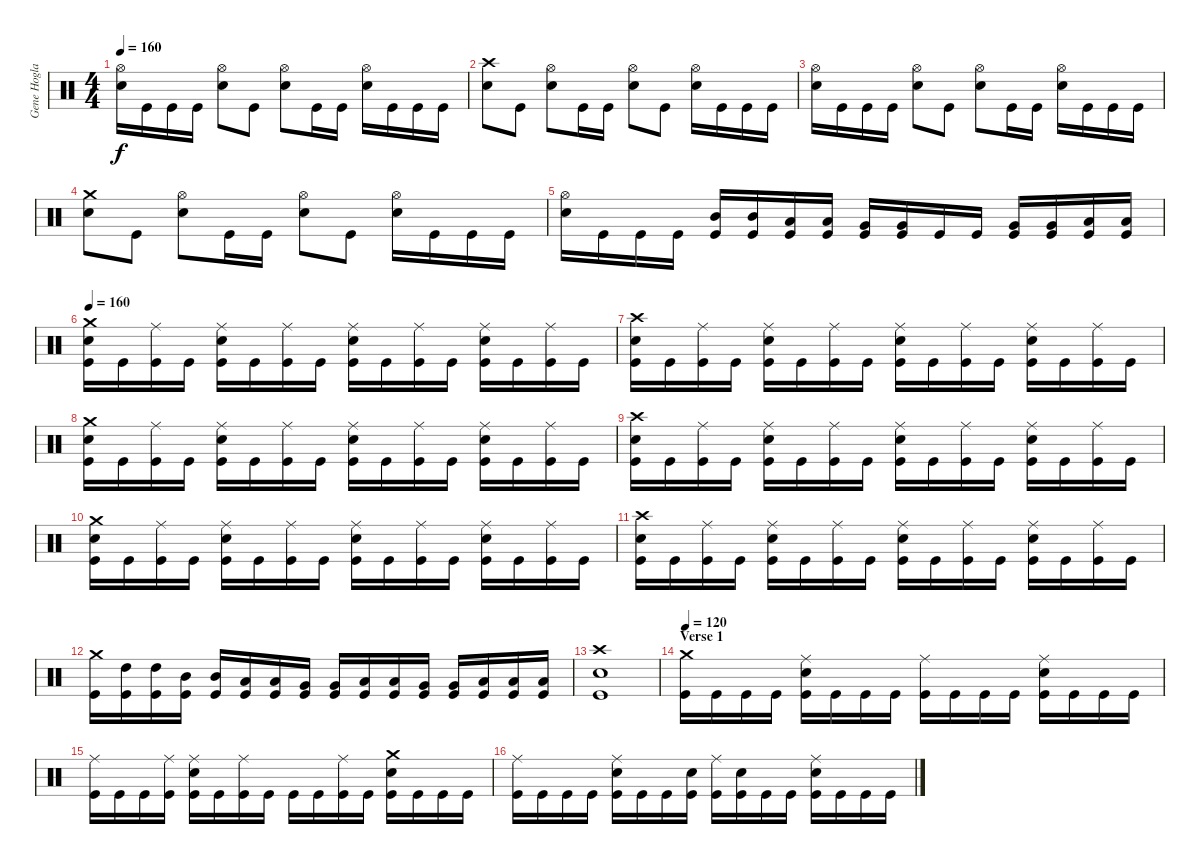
\track ("Gene Hoglan" "Gene Hogla") {instrument percussion}
\staff {score}
\articulation defaults
\ts (4 4)
\tempo 160
\clef neutral
\ks c
("Hi-Hat (open)" "Electric Snare (hit)").16{dy f} "Kick (hit)".16 "Kick (hit)".16 "Kick (hit)".16 ("Hi-Hat (open)" "Electric Snare (hit)").8 "Kick (hit)".8 ("Hi-Hat (open)" "Electric Snare (hit)").8 "Kick (hit)".16 "Kick (hit)".16 ("Hi-Hat (open)" "Electric Snare (hit)").16 "Kick (hit)".16 "Kick (hit)".16 "Kick (hit)".16 |
("Crash high (hit)" "Electric Snare (hit)").8 "Kick (hit)".8 ("Hi-Hat (open)" "Electric Snare (hit)").8 "Kick (hit)".16 "Kick (hit)".16 ("Hi-Hat (open)" "Electric Snare (hit)").8 "Kick (hit)".8 ("Hi-Hat (open)" "Electric Snare (hit)").16 "Kick (hit)".16 "Kick (hit)".16 "Kick (hit)".16 |
("Hi-Hat (open)" "Electric Snare (hit)").16 "Kick (hit)".16 "Kick (hit)".16 "Kick (hit)".16 ("Hi-Hat (open)" "Electric Snare (hit)").8 "Kick (hit)".8 ("Hi-Hat (open)" "Electric Snare (hit)").8 "Kick (hit)".16 "Kick (hit)".16 ("Hi-Hat (open)" "Electric Snare (hit)").16 "Kick (hit)".16 "Kick (hit)".16 "Kick (hit)".16 |
("Crash medium (hit)" "Electric Snare (hit)").8 "Kick (hit)".8 ("Hi-Hat (open)" "Electric Snare (hit)").8 "Kick (hit)".16 "Kick (hit)".16 ("Hi-Hat (open)" "Electric Snare (hit)").8 "Kick (hit)".8 ("Hi-Hat (open)" "Electric Snare (hit)").16 "Kick (hit)".16 "Kick (hit)".16 "Kick (hit)".16 |
("Hi-Hat (open)" "Electric Snare (hit)").16 "Kick (hit)".16 "Kick (hit)".16 "Kick (hit)".16 ("Mid Tom (hit)" "Kick (hit)").16 ("Mid Tom (hit)" "Kick (hit)").16 ("Low Tom (hit)" "Kick (hit)").16 ("Low Tom (hit)" "Kick (hit)").16 ("Very Low Tom (hit)" "Kick (hit)").16 ("Very Low Tom (hit)" "Kick (hit)").16 "Kick (hit)".16 "Kick (hit)".16 ("Very Low Tom (hit)" "Kick (hit)").16 ("Very Low Tom (hit)" "Kick (hit)").16 ("Low Floor Tom (hit)" "Kick (hit)").16 ("Low Floor Tom (hit)" "Kick (hit)").16 |
\tempo 160
("Crash medium (hit)" "Electric Snare (hit)" "Kick (hit)").16 "Kick (hit)".16 ("Ride (middle)" "Kick (hit)").16 "Kick (hit)".16 ("Ride (middle)" "Electric Snare (hit)" "Kick (hit)").16 "Kick (hit)".16 ("Ride (middle)" "Kick (hit)").16 "Kick (hit)".16 ("Ride (middle)" "Electric Snare (hit)" "Kick (hit)").16 "Kick (hit)".16 ("Ride (middle)" "Kick (hit)").16 "Kick (hit)".16 ("Ride (middle)" "Electric Snare (hit)" "Kick (hit)").16 "Kick (hit)".16 ("Ride (middle)" "Kick (hit)").16 "Kick (hit)".16 |
("Crash high (hit)" "Electric Snare (hit)" "Kick (hit)").16 "Kick (hit)".16 ("Ride (middle)" "Kick (hit)").16 "Kick (hit)".16 ("Ride (middle)" "Electric Snare (hit)" "Kick (hit)").16 "Kick (hit)".16 ("Ride (middle)" "Kick (hit)").16 "Kick (hit)".16 ("Ride (middle)" "Electric Snare (hit)" "Kick (hit)").16 "Kick (hit)".16 ("Ride (middle)" "Kick (hit)").16 "Kick (hit)".16 ("Ride (middle)" "Electric Snare (hit)" "Kick (hit)").16 "Kick (hit)".16 ("Ride (middle)" "Kick (hit)").16 "Kick (hit)".16 |
("Crash medium (hit)" "Electric Snare (hit)" "Kick (hit)").16 "Kick (hit)".16 ("Ride (middle)" "Kick (hit)").16 "Kick (hit)".16 ("Ride (middle)" "Electric Snare (hit)" "Kick (hit)").16 "Kick (hit)".16 ("Ride (middle)" "Kick (hit)").16 "Kick (hit)".16 ("Ride (middle)" "Electric Snare (hit)" "Kick (hit)").16 "Kick (hit)".16 ("Ride (middle)" "Kick (hit)").16 "Kick (hit)".16 ("Ride (middle)" "Electric Snare (hit)" "Kick (hit)").16 "Kick (hit)".16 ("Ride (middle)" "Kick (hit)").16 "Kick (hit)".16 |
("Crash high (hit)" "Electric Snare (hit)" "Kick (hit)").16 "Kick (hit)".16 ("Ride (middle)" "Kick (hit)").16 "Kick (hit)".16 ("Ride (middle)" "Electric Snare (hit)" "Kick (hit)").16 "Kick (hit)".16 ("Ride (middle)" "Kick (hit)").16 "Kick (hit)".16 ("Ride (middle)" "Electric Snare (hit)" "Kick (hit)").16 "Kick (hit)".16 ("Ride (middle)" "Kick (hit)").16 "Kick (hit)".16 ("Ride (middle)" "Electric Snare (hit)" "Kick (hit)").16 "Kick (hit)".16 ("Ride (middle)" "Kick (hit)").16 "Kick (hit)".16 |
("Crash medium (hit)" "Electric Snare (hit)" "Kick (hit)").16 "Kick (hit)".16 ("Ride (middle)" "Kick (hit)").16 "Kick (hit)".16 ("Ride (middle)" "Electric Snare (hit)" "Kick (hit)").16 "Kick (hit)".16 ("Ride (middle)" "Kick (hit)").16 "Kick (hit)".16 ("Ride (middle)" "Electric Snare (hit)" "Kick (hit)").16 "Kick (hit)".16 ("Ride (middle)" "Kick (hit)").16 "Kick (hit)".16 ("Ride (middle)" "Electric Snare (hit)" "Kick (hit)").16 "Kick (hit)".16 ("Ride (middle)" "Kick (hit)").16 "Kick (hit)".16 |
("Crash high (hit)" "Electric Snare (hit)" "Kick (hit)").16 "Kick (hit)".16 ("Ride (middle)" "Kick (hit)").16 "Kick (hit)".16 ("Ride (middle)" "Electric Snare (hit)" "Kick (hit)").16 "Kick (hit)".16 ("Ride (middle)" "Kick (hit)").16 "Kick (hit)".16 ("Ride (middle)" "Electric Snare (hit)" "Kick (hit)").16 "Kick (hit)".16 ("Ride (middle)" "Kick (hit)").16 "Kick (hit)".16 ("Ride (middle)" "Electric Snare (hit)" "Kick (hit)").16 "Kick (hit)".16 ("Ride (middle)" "Kick (hit)").16 "Kick (hit)".16 |
("Crash medium (hit)" "Kick (hit)").16 ("High Tom (hit)" "Kick (hit)").16 ("High Tom (hit)" "Kick (hit)").16 ("Mid Tom (hit)" "Kick (hit)").16 ("Mid Tom (hit)" "Kick (hit)").16 ("Low Tom (hit)" "Kick (hit)").16 ("Low Tom (hit)" "Kick (hit)").16 ("Very Low Tom (hit)" "Kick (hit)").16 ("Very Low Tom (hit)" "Kick (hit)").16 ("Low Tom (hit)" "Kick (hit)").16 ("Low Tom (hit)" "Kick (hit)").16 ("Very Low Tom (hit)" "Kick (hit)").16 ("Very Low Tom (hit)" "Kick (hit)").16 ("Low Floor Tom (hit)" "Kick (hit)").16 ("Low Floor Tom (hit)" "Kick (hit)").16 ("Low Floor Tom (hit)" "Kick (hit)").16 |
("Crash high (hit)" "Electric Snare (hit)" "Kick (hit)").1 |
\section ("" "Verse 1")
\tempo 120
("Crash medium (hit)" "Kick (hit)").16 "Kick (hit)".16 "Kick (hit)".16 "Kick (hit)".16 ("Ride (middle)" "Electric Snare (hit)" "Kick (hit)").16 "Kick (hit)".16 "Kick (hit)".16 "Kick (hit)".16 ("Ride (middle)" "Kick (hit)").16 "Kick (hit)".16 "Kick (hit)".16 "Kick (hit)".16 ("Ride (middle)" "Electric Snare (hit)" "Kick (hit)").16 "Kick (hit)".16 "Kick (hit)".16 "Kick (hit)".16 |
("Ride (middle)" "Kick (hit)").16 "Kick (hit)".16 "Kick (hit)".16 ("Ride (middle)" "Kick (hit)").16 ("Ride (middle)" "Electric Snare (hit)" "Kick (hit)").16 "Kick (hit)".16 ("Ride (middle)" "Kick (hit)").16 "Kick (hit)".16 "Kick (hit)".16 "Kick (hit)".16 ("Ride (middle)" "Kick (hit)").16 "Kick (hit)".16 ("Crash medium (hit)" "Electric Snare (hit)" "Kick (hit)").16 "Kick (hit)".16 "Kick (hit)".16 "Kick (hit)".16 |
("Ride (middle)" "Kick (hit)").16 "Kick (hit)".16 "Kick (hit)".16 "Kick (hit)".16 ("Ride (middle)" "Electric Snare (hit)" "Kick (hit)").16 "Kick (hit)".16 "Kick (hit)".16 ("Electric Snare (hit)" "Kick (hit)").16 ("Ride (middle)" "Kick (hit)").16 ("Electric Snare (hit)" "Kick (hit)").16 "Kick (hit)".16 "Kick (hit)".16 ("Ride (middle)" "Electric Snare (hit)" "Kick (hit)").16 "Kick (hit)".16 "Kick (hit)".16 "Kick (hit)".16
